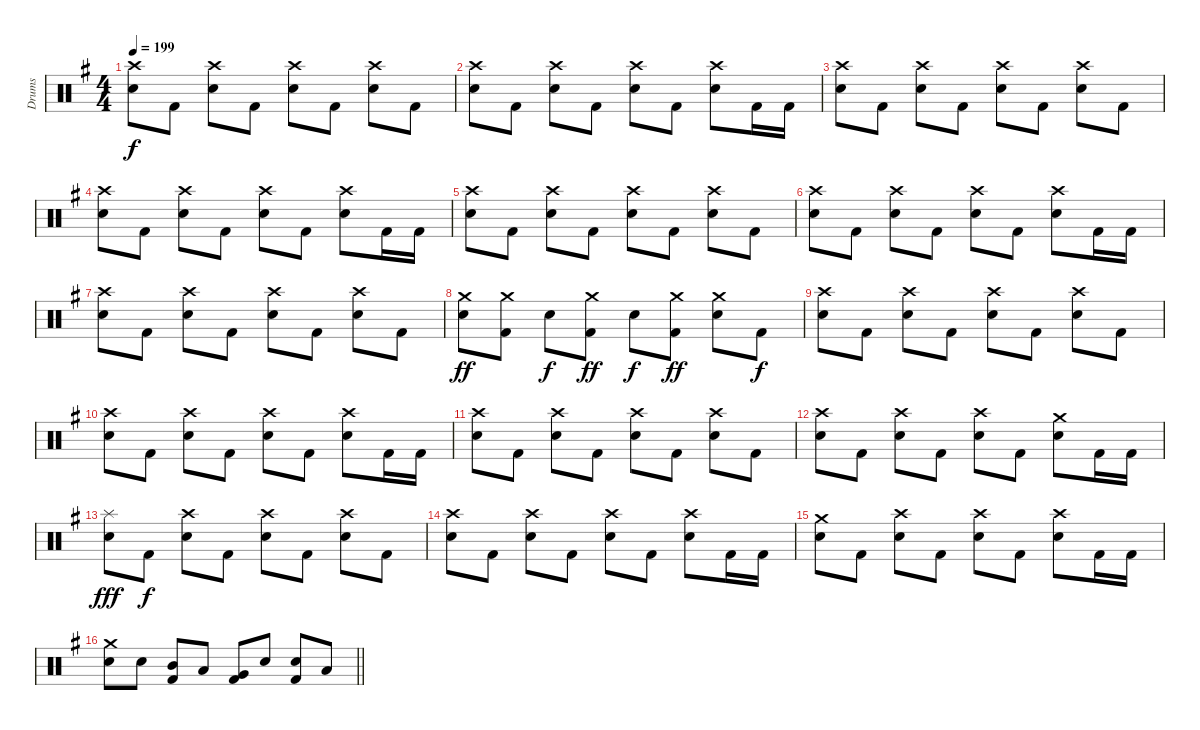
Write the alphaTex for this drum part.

\track ("Drums" "Drums") {instrument percussion}
\staff {score}
\articulation defaults
\ts (4 4)
\tempo 199
\clef neutral
\ks eminor
("Crash high (hit)" "Electric Snare (hit)").8{dy f} "Kick (hit) 2".8 ("Crash high (hit)" "Electric Snare (hit)").8 "Kick (hit) 2".8 ("Crash high (hit)" "Electric Snare (hit)").8 "Kick (hit) 2".8 ("Crash high (hit)" "Electric Snare (hit)").8 "Kick (hit) 2".8 |
("Crash high (hit)" "Electric Snare (hit)").8 "Kick (hit) 2".8 ("Crash high (hit)" "Electric Snare (hit)").8 "Kick (hit) 2".8 ("Crash high (hit)" "Electric Snare (hit)").8 "Kick (hit) 2".8 ("Crash high (hit)" "Electric Snare (hit)").8 "Kick (hit) 2".16 "Kick (hit) 2".16 |
("Crash high (hit)" "Electric Snare (hit)").8 "Kick (hit) 2".8 ("Crash high (hit)" "Electric Snare (hit)").8 "Kick (hit) 2".8 ("Crash high (hit)" "Electric Snare (hit)").8 "Kick (hit) 2".8 ("Crash high (hit)" "Electric Snare (hit)").8 "Kick (hit) 2".8 |
("Crash high (hit)" "Electric Snare (hit)").8 "Kick (hit) 2".8 ("Crash high (hit)" "Electric Snare (hit)").8 "Kick (hit) 2".8 ("Crash high (hit)" "Electric Snare (hit)").8 "Kick (hit) 2".8 ("Crash high (hit)" "Electric Snare (hit)").8 "Kick (hit) 2".16 "Kick (hit) 2".16 |
("Crash high (hit)" "Electric Snare (hit)").8 "Kick (hit) 2".8 ("Crash high (hit)" "Electric Snare (hit)").8 "Kick (hit) 2".8 ("Crash high (hit)" "Electric Snare (hit)").8 "Kick (hit) 2".8 ("Crash high (hit)" "Electric Snare (hit)").8 "Kick (hit) 2".8 |
("Crash high (hit)" "Electric Snare (hit)").8 "Kick (hit) 2".8 ("Crash high (hit)" "Electric Snare (hit)").8 "Kick (hit) 2".8 ("Crash high (hit)" "Electric Snare (hit)").8 "Kick (hit) 2".8 ("Crash high (hit)" "Electric Snare (hit)").8 "Kick (hit) 2".16 "Kick (hit) 2".16 |
("Crash high (hit)" "Electric Snare (hit)").8 "Kick (hit) 2".8 ("Crash high (hit)" "Electric Snare (hit)").8 "Kick (hit) 2".8 ("Crash high (hit)" "Electric Snare (hit)").8 "Kick (hit) 2".8 ("Crash high (hit)" "Electric Snare (hit)").8 "Kick (hit) 2".8 |
("Crash medium (hit)" "Electric Snare (hit)").8{dy ff} ("Crash medium (hit)" "Kick (hit) 2").8 "Electric Snare (hit)".8{dy f} ("Crash medium (hit)" "Kick (hit) 2").8{dy ff} "Electric Snare (hit)".8{dy f} ("Crash medium (hit)" "Kick (hit) 2").8{dy ff} ("Crash medium (hit)" "Electric Snare (hit)").8 "Kick (hit) 2".8{dy f} |
("Crash high (hit)" "Electric Snare (hit)").8 "Kick (hit) 2".8 ("Crash high (hit)" "Electric Snare (hit)").8 "Kick (hit) 2".8 ("Crash high (hit)" "Electric Snare (hit)").8 "Kick (hit) 2".8 ("Crash high (hit)" "Electric Snare (hit)").8 "Kick (hit) 2".8 |
("Crash high (hit)" "Electric Snare (hit)").8 "Kick (hit) 2".8 ("Crash high (hit)" "Electric Snare (hit)").8 "Kick (hit) 2".8 ("Crash high (hit)" "Electric Snare (hit)").8 "Kick (hit) 2".8 ("Crash high (hit)" "Electric Snare (hit)").8 "Kick (hit) 2".16 "Kick (hit) 2".16 |
("Crash high (hit)" "Electric Snare (hit)").8 "Kick (hit) 2".8 ("Crash high (hit)" "Electric Snare (hit)").8 "Kick (hit) 2".8 ("Crash high (hit)" "Electric Snare (hit)").8 "Kick (hit) 2".8 ("Crash high (hit)" "Electric Snare (hit)").8 "Kick (hit) 2".8 |
("Crash high (hit)" "Electric Snare (hit)").8 "Kick (hit) 2".8 ("Crash high (hit)" "Electric Snare (hit)").8 "Kick (hit) 2".8 ("Crash high (hit)" "Electric Snare (hit)").8 "Kick (hit) 2".8 ("Crash medium (hit)" "Electric Snare (hit)").8 "Kick (hit) 2".16 "Kick (hit) 2".16 |
("Splash (hit)" "Electric Snare (hit)").8{dy fff} "Kick (hit) 2".8{dy f} ("Crash high (hit)" "Electric Snare (hit)").8 "Kick (hit) 2".8 ("Crash high (hit)" "Electric Snare (hit)").8 "Kick (hit) 2".8 ("Crash high (hit)" "Electric Snare (hit)").8 "Kick (hit) 2".8 |
("Crash high (hit)" "Electric Snare (hit)").8 "Kick (hit) 2".8 ("Crash high (hit)" "Electric Snare (hit)").8 "Kick (hit) 2".8 ("Crash high (hit)" "Electric Snare (hit)").8 "Kick (hit) 2".8 ("Crash high (hit)" "Electric Snare (hit)").8 "Kick (hit) 2".16 "Kick (hit) 2".16 |
("Crash medium (hit)" "Electric Snare (hit)").8 "Kick (hit) 2".8 ("Crash high (hit)" "Electric Snare (hit)").8 "Kick (hit) 2".8 ("Crash high (hit)" "Electric Snare (hit)").8 "Kick (hit) 2".8 ("Crash high (hit)" "Electric Snare (hit)").8 "Kick (hit) 2".16 "Kick (hit) 2".16 |
\barLineRight lightlight
("Crash medium (hit)" "Electric Snare (hit)").8 "Electric Snare (hit)".8 ("Mid Tom (hit)" "Kick (hit) 2").8 "Low Tom (hit)".8 ("Very Low Tom (hit)" "Kick (hit) 2").8 "Electric Snare (hit)".8 ("Electric Snare (hit)" "Kick (hit) 2").8 "Low Tom (hit)".8
